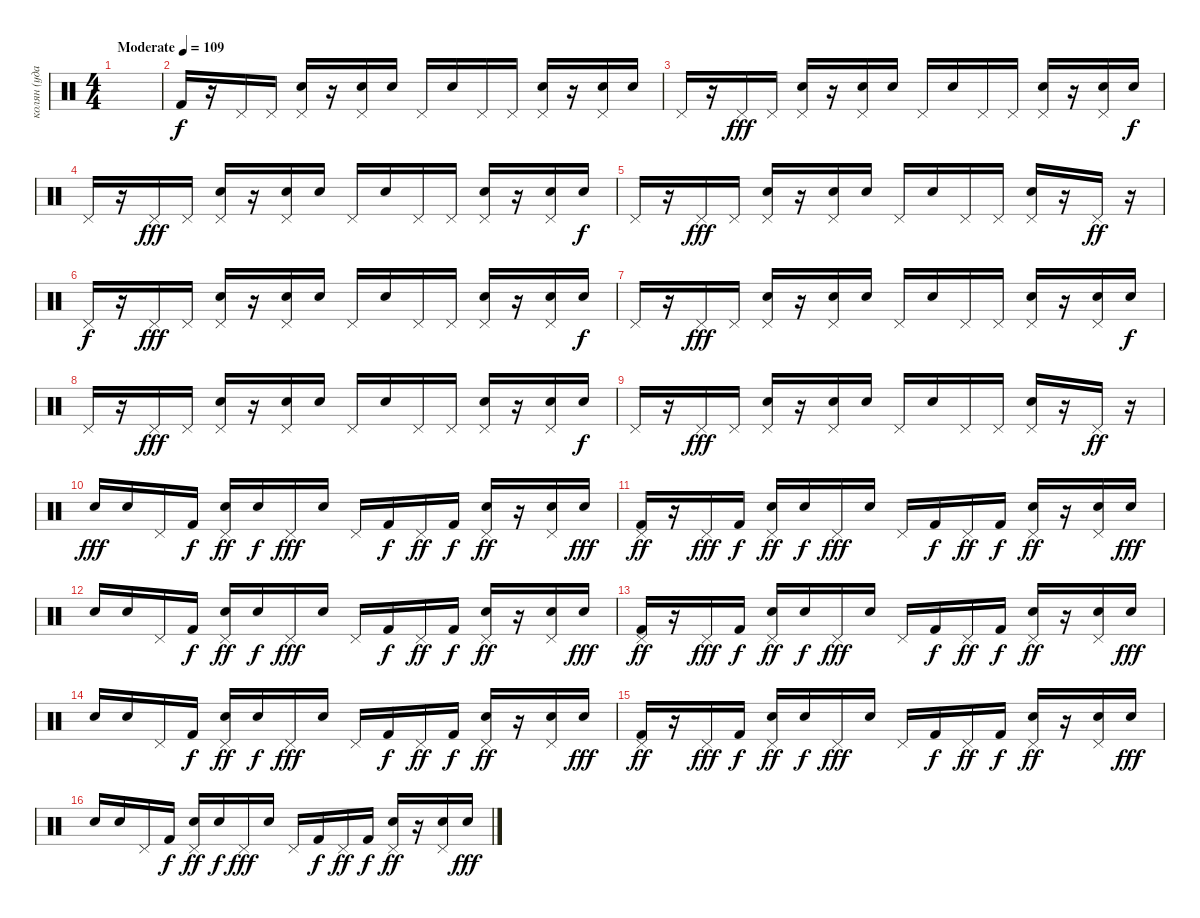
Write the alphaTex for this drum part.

\track ("колян (ударные) v2.0" "колян (уда") {instrument percussion}
\staff
\articulation defaults
\ts (4 4)
\tempo (109 "Moderate")
\clef neutral
\ks c
|
"Kick (hit) 2".16 r.16 "Pedal Hi-Hat (hit)".16 "Pedal Hi-Hat (hit)".16 ("Electric Snare (hit)" "Pedal Hi-Hat (hit)").16 r.16 ("Electric Snare (hit)" "Pedal Hi-Hat (hit)").16 "Electric Snare (hit)".16 "Pedal Hi-Hat (hit)".16 "Electric Snare (hit)".16 "Pedal Hi-Hat (hit)".16 "Pedal Hi-Hat (hit)".16 ("Electric Snare (hit)" "Pedal Hi-Hat (hit)").16 r.16 ("Electric Snare (hit)" "Pedal Hi-Hat (hit)").16 "Electric Snare (hit)".16{dy f} |
"Pedal Hi-Hat (hit)".16 r.16 "Pedal Hi-Hat (hit)".16{dy fff} "Pedal Hi-Hat (hit)".16 ("Electric Snare (hit)" "Pedal Hi-Hat (hit)").16 r.16 ("Electric Snare (hit)" "Pedal Hi-Hat (hit)").16 "Electric Snare (hit)".16 "Pedal Hi-Hat (hit)".16 "Electric Snare (hit)".16 "Pedal Hi-Hat (hit)".16 "Pedal Hi-Hat (hit)".16 ("Electric Snare (hit)" "Pedal Hi-Hat (hit)").16 r.16 ("Electric Snare (hit)" "Pedal Hi-Hat (hit)").16 "Electric Snare (hit)".16{dy f} |
"Pedal Hi-Hat (hit)".16 r.16 "Pedal Hi-Hat (hit)".16{dy fff} "Pedal Hi-Hat (hit)".16 ("Electric Snare (hit)" "Pedal Hi-Hat (hit)").16 r.16 ("Electric Snare (hit)" "Pedal Hi-Hat (hit)").16 "Electric Snare (hit)".16 "Pedal Hi-Hat (hit)".16 "Electric Snare (hit)".16 "Pedal Hi-Hat (hit)".16 "Pedal Hi-Hat (hit)".16 ("Electric Snare (hit)" "Pedal Hi-Hat (hit)").16 r.16 ("Electric Snare (hit)" "Pedal Hi-Hat (hit)").16 "Electric Snare (hit)".16{dy f} |
"Pedal Hi-Hat (hit)".16 r.16 "Pedal Hi-Hat (hit)".16{dy fff} "Pedal Hi-Hat (hit)".16 ("Electric Snare (hit)" "Pedal Hi-Hat (hit)").16 r.16 ("Electric Snare (hit)" "Pedal Hi-Hat (hit)").16 "Electric Snare (hit)".16 "Pedal Hi-Hat (hit)".16 "Electric Snare (hit)".16 "Pedal Hi-Hat (hit)".16 "Pedal Hi-Hat (hit)".16 ("Electric Snare (hit)" "Pedal Hi-Hat (hit)").16 r.16 "Pedal Hi-Hat (hit)".16{dy ff} r.16 |
"Pedal Hi-Hat (hit)".16{dy f} r.16 "Pedal Hi-Hat (hit)".16{dy fff} "Pedal Hi-Hat (hit)".16 ("Electric Snare (hit)" "Pedal Hi-Hat (hit)").16 r.16 ("Electric Snare (hit)" "Pedal Hi-Hat (hit)").16 "Electric Snare (hit)".16 "Pedal Hi-Hat (hit)".16 "Electric Snare (hit)".16 "Pedal Hi-Hat (hit)".16 "Pedal Hi-Hat (hit)".16 ("Electric Snare (hit)" "Pedal Hi-Hat (hit)").16 r.16 ("Electric Snare (hit)" "Pedal Hi-Hat (hit)").16 "Electric Snare (hit)".16{dy f} |
"Pedal Hi-Hat (hit)".16 r.16 "Pedal Hi-Hat (hit)".16{dy fff} "Pedal Hi-Hat (hit)".16 ("Electric Snare (hit)" "Pedal Hi-Hat (hit)").16 r.16 ("Electric Snare (hit)" "Pedal Hi-Hat (hit)").16 "Electric Snare (hit)".16 "Pedal Hi-Hat (hit)".16 "Electric Snare (hit)".16 "Pedal Hi-Hat (hit)".16 "Pedal Hi-Hat (hit)".16 ("Electric Snare (hit)" "Pedal Hi-Hat (hit)").16 r.16 ("Electric Snare (hit)" "Pedal Hi-Hat (hit)").16 "Electric Snare (hit)".16{dy f} |
"Pedal Hi-Hat (hit)".16 r.16 "Pedal Hi-Hat (hit)".16{dy fff} "Pedal Hi-Hat (hit)".16 ("Electric Snare (hit)" "Pedal Hi-Hat (hit)").16 r.16 ("Electric Snare (hit)" "Pedal Hi-Hat (hit)").16 "Electric Snare (hit)".16 "Pedal Hi-Hat (hit)".16 "Electric Snare (hit)".16 "Pedal Hi-Hat (hit)".16 "Pedal Hi-Hat (hit)".16 ("Electric Snare (hit)" "Pedal Hi-Hat (hit)").16 r.16 ("Electric Snare (hit)" "Pedal Hi-Hat (hit)").16 "Electric Snare (hit)".16{dy f} |
"Pedal Hi-Hat (hit)".16 r.16 "Pedal Hi-Hat (hit)".16{dy fff} "Pedal Hi-Hat (hit)".16 ("Electric Snare (hit)" "Pedal Hi-Hat (hit)").16 r.16 ("Electric Snare (hit)" "Pedal Hi-Hat (hit)").16 "Electric Snare (hit)".16 "Pedal Hi-Hat (hit)".16 "Electric Snare (hit)".16 "Pedal Hi-Hat (hit)".16 "Pedal Hi-Hat (hit)".16 ("Electric Snare (hit)" "Pedal Hi-Hat (hit)").16 r.16 "Pedal Hi-Hat (hit)".16{dy ff} r.16 |
"Snare (hit) 2".16{dy fff} "Snare (hit) 2".16 "Pedal Hi-Hat (hit)".16 "Kick (hit) 2".16{dy f} ("Snare (hit) 2" "Pedal Hi-Hat (hit)").16{dy ff} "Snare (hit) 2".16{dy f} "Pedal Hi-Hat (hit)".16{dy fff} "Snare (hit) 2".16 "Pedal Hi-Hat (hit)".16 "Kick (hit) 2".16{dy f} "Pedal Hi-Hat (hit)".16{dy ff} "Kick (hit) 2".16{dy f} ("Snare (hit) 2" "Pedal Hi-Hat (hit)").16{dy ff} r.16 ("Snare (hit) 2" "Pedal Hi-Hat (hit)").16 "Snare (hit) 2".16{dy fff} |
("Pedal Hi-Hat (hit)" "Kick (hit) 2").16{dy ff} r.16 "Pedal Hi-Hat (hit)".16{dy fff} "Kick (hit) 2".16{dy f} ("Snare (hit) 2" "Pedal Hi-Hat (hit)").16{dy ff} "Snare (hit) 2".16{dy f} "Pedal Hi-Hat (hit)".16{dy fff} "Snare (hit) 2".16 "Pedal Hi-Hat (hit)".16 "Kick (hit) 2".16{dy f} "Pedal Hi-Hat (hit)".16{dy ff} "Kick (hit) 2".16{dy f} ("Snare (hit) 2" "Pedal Hi-Hat (hit)").16{dy ff} r.16 ("Snare (hit) 2" "Pedal Hi-Hat (hit)").16 "Snare (hit) 2".16{dy fff} |
"Snare (hit) 2".16 "Snare (hit) 2".16 "Pedal Hi-Hat (hit)".16 "Kick (hit) 2".16{dy f} ("Snare (hit) 2" "Pedal Hi-Hat (hit)").16{dy ff} "Snare (hit) 2".16{dy f} "Pedal Hi-Hat (hit)".16{dy fff} "Snare (hit) 2".16 "Pedal Hi-Hat (hit)".16 "Kick (hit) 2".16{dy f} "Pedal Hi-Hat (hit)".16{dy ff} "Kick (hit) 2".16{dy f} ("Snare (hit) 2" "Pedal Hi-Hat (hit)").16{dy ff} r.16 ("Snare (hit) 2" "Pedal Hi-Hat (hit)").16 "Snare (hit) 2".16{dy fff} |
("Pedal Hi-Hat (hit)" "Kick (hit) 2").16{dy ff} r.16 "Pedal Hi-Hat (hit)".16{dy fff} "Kick (hit) 2".16{dy f} ("Snare (hit) 2" "Pedal Hi-Hat (hit)").16{dy ff} "Snare (hit) 2".16{dy f} "Pedal Hi-Hat (hit)".16{dy fff} "Snare (hit) 2".16 "Pedal Hi-Hat (hit)".16 "Kick (hit) 2".16{dy f} "Pedal Hi-Hat (hit)".16{dy ff} "Kick (hit) 2".16{dy f} ("Snare (hit) 2" "Pedal Hi-Hat (hit)").16{dy ff} r.16 ("Snare (hit) 2" "Pedal Hi-Hat (hit)").16 "Snare (hit) 2".16{dy fff} |
"Snare (hit) 2".16 "Snare (hit) 2".16 "Pedal Hi-Hat (hit)".16 "Kick (hit) 2".16{dy f} ("Snare (hit) 2" "Pedal Hi-Hat (hit)").16{dy ff} "Snare (hit) 2".16{dy f} "Pedal Hi-Hat (hit)".16{dy fff} "Snare (hit) 2".16 "Pedal Hi-Hat (hit)".16 "Kick (hit) 2".16{dy f} "Pedal Hi-Hat (hit)".16{dy ff} "Kick (hit) 2".16{dy f} ("Snare (hit) 2" "Pedal Hi-Hat (hit)").16{dy ff} r.16 ("Snare (hit) 2" "Pedal Hi-Hat (hit)").16 "Snare (hit) 2".16{dy fff} |
("Pedal Hi-Hat (hit)" "Kick (hit) 2").16{dy ff} r.16 "Pedal Hi-Hat (hit)".16{dy fff} "Kick (hit) 2".16{dy f} ("Snare (hit) 2" "Pedal Hi-Hat (hit)").16{dy ff} "Snare (hit) 2".16{dy f} "Pedal Hi-Hat (hit)".16{dy fff} "Snare (hit) 2".16 "Pedal Hi-Hat (hit)".16 "Kick (hit) 2".16{dy f} "Pedal Hi-Hat (hit)".16{dy ff} "Kick (hit) 2".16{dy f} ("Snare (hit) 2" "Pedal Hi-Hat (hit)").16{dy ff} r.16 ("Snare (hit) 2" "Pedal Hi-Hat (hit)").16 "Snare (hit) 2".16{dy fff} |
"Snare (hit) 2".16 "Snare (hit) 2".16 "Pedal Hi-Hat (hit)".16 "Kick (hit) 2".16{dy f} ("Snare (hit) 2" "Pedal Hi-Hat (hit)").16{dy ff} "Snare (hit) 2".16{dy f} "Pedal Hi-Hat (hit)".16{dy fff} "Snare (hit) 2".16 "Pedal Hi-Hat (hit)".16 "Kick (hit) 2".16{dy f} "Pedal Hi-Hat (hit)".16{dy ff} "Kick (hit) 2".16{dy f} ("Snare (hit) 2" "Pedal Hi-Hat (hit)").16{dy ff} r.16 ("Snare (hit) 2" "Pedal Hi-Hat (hit)").16 "Snare (hit) 2".16{dy fff}
